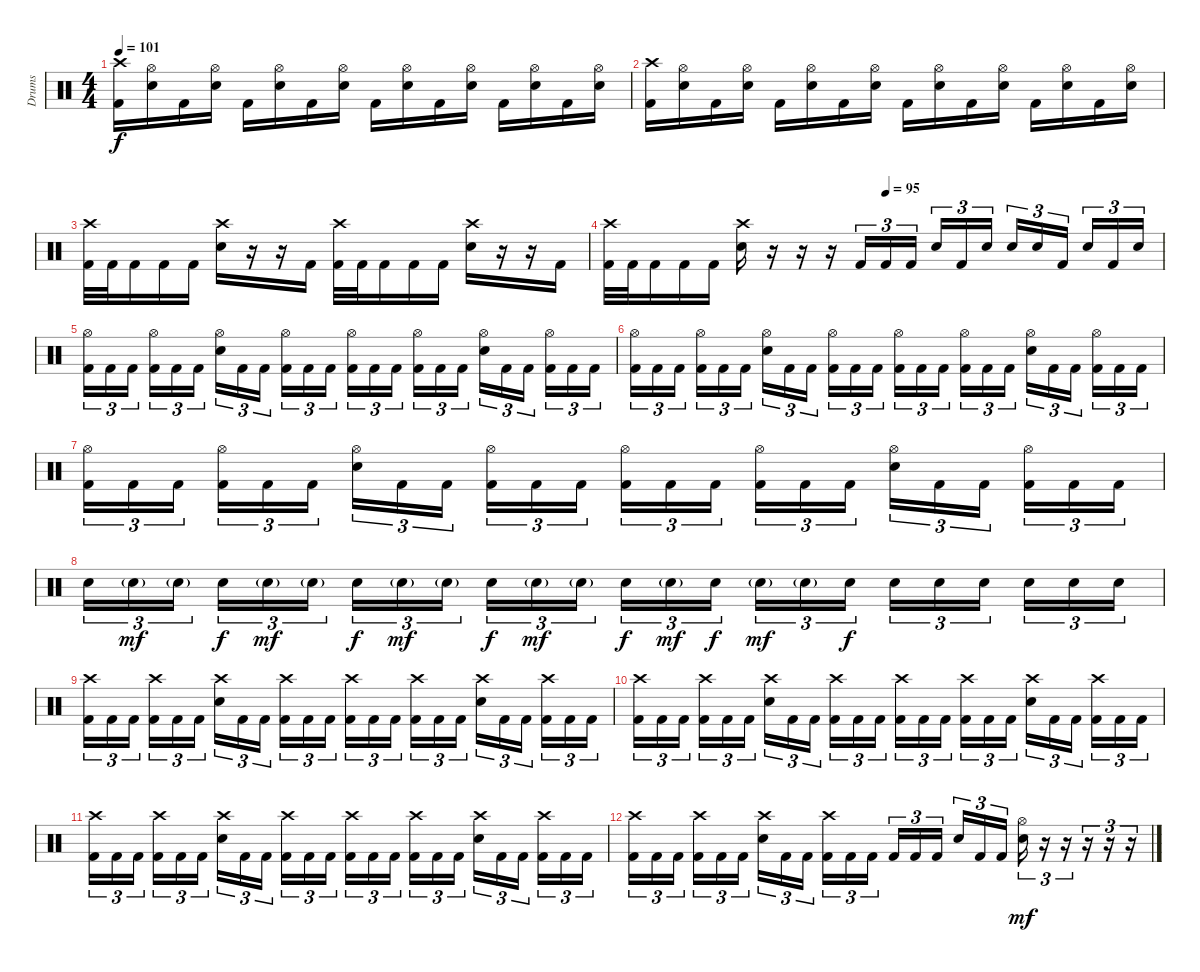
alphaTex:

\track ("Drums" "Drums") {instrument percussion}
\staff {score}
\articulation defaults
\ts (4 4)
\tempo 101
\clef neutral
\ks c
("Crash high (hit)" "Kick (hit) 2").16{dy f} ("Hi-Hat (open)" "Electric Snare (hit)").16 "Kick (hit) 2".16 ("Hi-Hat (open)" "Electric Snare (hit)").16 "Kick (hit) 2".16 ("Hi-Hat (open)" "Electric Snare (hit)").16 "Kick (hit) 2".16 ("Hi-Hat (open)" "Electric Snare (hit)").16 "Kick (hit) 2".16 ("Hi-Hat (open)" "Electric Snare (hit)").16 "Kick (hit) 2".16 ("Hi-Hat (open)" "Electric Snare (hit)").16 "Kick (hit) 2".16 ("Hi-Hat (open)" "Electric Snare (hit)").16 "Kick (hit) 2".16 ("Hi-Hat (open)" "Electric Snare (hit)").16 |
("Crash high (hit)" "Kick (hit) 2").16 ("Hi-Hat (open)" "Electric Snare (hit)").16 "Kick (hit) 2".16 ("Hi-Hat (open)" "Electric Snare (hit)").16 "Kick (hit) 2".16 ("Hi-Hat (open)" "Electric Snare (hit)").16 "Kick (hit) 2".16 ("Hi-Hat (open)" "Electric Snare (hit)").16 "Kick (hit) 2".16 ("Hi-Hat (open)" "Electric Snare (hit)").16 "Kick (hit) 2".16 ("Hi-Hat (open)" "Electric Snare (hit)").16 "Kick (hit) 2".16 ("Hi-Hat (open)" "Electric Snare (hit)").16 "Kick (hit) 2".16 ("Hi-Hat (open)" "Electric Snare (hit)").16 |
("Crash high (hit)" "Kick (hit) 2").32 "Kick (hit) 2".32 "Kick (hit) 2".16 "Kick (hit) 2".16 "Kick (hit) 2".16 ("Crash high (hit)" "Electric Snare (hit)").16 r.16 r.16 "Kick (hit) 2".16 ("Crash high (hit)" "Kick (hit) 2").32 "Kick (hit) 2".32 "Kick (hit) 2".16 "Kick (hit) 2".16 "Kick (hit) 2".16 ("Crash high (hit)" "Electric Snare (hit)").16 r.16 r.16 "Kick (hit) 2".16 |
\tempo (95 0.5)
("Crash high (hit)" "Kick (hit) 2").32 "Kick (hit) 2".32 "Kick (hit) 2".16 "Kick (hit) 2".16 "Kick (hit) 2".16 ("Crash high (hit)" "Electric Snare (hit)").16 r.16 r.16 r.16 "Kick (hit) 2".16{tu (3 2)} "Kick (hit) 2".16{tu (3 2)} "Kick (hit) 2".16{tu (3 2) beam splitsecondary} "Electric Snare (hit)".16{tu (3 2)} "Kick (hit) 2".16{tu (3 2)} "Electric Snare (hit)".16{tu (3 2)} "Electric Snare (hit)".16{tu (3 2)} "Electric Snare (hit)".16{tu (3 2)} "Kick (hit) 2".16{tu (3 2) beam splitsecondary} "Electric Snare (hit)".16{tu (3 2)} "Kick (hit) 2".16{tu (3 2)} "Electric Snare (hit)".16{tu (3 2)} |
("Hi-Hat (open)" "Kick (hit) 2").16{tu (3 2)} "Kick (hit) 2".16{tu (3 2)} "Kick (hit) 2".16{tu (3 2) beam splitsecondary} ("Hi-Hat (open)" "Kick (hit) 2").16{tu (3 2)} "Kick (hit) 2".16{tu (3 2)} "Kick (hit) 2".16{tu (3 2)} ("Hi-Hat (open)" "Electric Snare (hit)").16{tu (3 2)} "Kick (hit) 2".16{tu (3 2)} "Kick (hit) 2".16{tu (3 2) beam splitsecondary} ("Hi-Hat (open)" "Kick (hit) 2").16{tu (3 2)} "Kick (hit) 2".16{tu (3 2)} "Kick (hit) 2".16{tu (3 2)} ("Hi-Hat (open)" "Kick (hit) 2").16{tu (3 2)} "Kick (hit) 2".16{tu (3 2)} "Kick (hit) 2".16{tu (3 2) beam splitsecondary} ("Hi-Hat (open)" "Kick (hit) 2").16{tu (3 2)} "Kick (hit) 2".16{tu (3 2)} "Kick (hit) 2".16{tu (3 2)} ("Hi-Hat (open)" "Electric Snare (hit)").16{tu (3 2)} "Kick (hit) 2".16{tu (3 2)} "Kick (hit) 2".16{tu (3 2) beam splitsecondary} ("Hi-Hat (open)" "Kick (hit) 2").16{tu (3 2)} "Kick (hit) 2".16{tu (3 2)} "Kick (hit) 2".16{tu (3 2)} |
("Hi-Hat (open)" "Kick (hit) 2").16{tu (3 2)} "Kick (hit) 2".16{tu (3 2)} "Kick (hit) 2".16{tu (3 2) beam splitsecondary} ("Hi-Hat (open)" "Kick (hit) 2").16{tu (3 2)} "Kick (hit) 2".16{tu (3 2)} "Kick (hit) 2".16{tu (3 2)} ("Hi-Hat (open)" "Electric Snare (hit)").16{tu (3 2)} "Kick (hit) 2".16{tu (3 2)} "Kick (hit) 2".16{tu (3 2) beam splitsecondary} ("Hi-Hat (open)" "Kick (hit) 2").16{tu (3 2)} "Kick (hit) 2".16{tu (3 2)} "Kick (hit) 2".16{tu (3 2)} ("Hi-Hat (open)" "Kick (hit) 2").16{tu (3 2)} "Kick (hit) 2".16{tu (3 2)} "Kick (hit) 2".16{tu (3 2) beam splitsecondary} ("Hi-Hat (open)" "Kick (hit) 2").16{tu (3 2)} "Kick (hit) 2".16{tu (3 2)} "Kick (hit) 2".16{tu (3 2)} ("Hi-Hat (open)" "Electric Snare (hit)").16{tu (3 2)} "Kick (hit) 2".16{tu (3 2)} "Kick (hit) 2".16{tu (3 2) beam splitsecondary} ("Hi-Hat (open)" "Kick (hit) 2").16{tu (3 2)} "Kick (hit) 2".16{tu (3 2)} "Kick (hit) 2".16{tu (3 2)} |
("Hi-Hat (open)" "Kick (hit) 2").16{tu (3 2)} "Kick (hit) 2".16{tu (3 2)} "Kick (hit) 2".16{tu (3 2) beam splitsecondary} ("Hi-Hat (open)" "Kick (hit) 2").16{tu (3 2)} "Kick (hit) 2".16{tu (3 2)} "Kick (hit) 2".16{tu (3 2)} ("Hi-Hat (open)" "Electric Snare (hit)").16{tu (3 2)} "Kick (hit) 2".16{tu (3 2)} "Kick (hit) 2".16{tu (3 2) beam splitsecondary} ("Hi-Hat (open)" "Kick (hit) 2").16{tu (3 2)} "Kick (hit) 2".16{tu (3 2)} "Kick (hit) 2".16{tu (3 2)} ("Hi-Hat (open)" "Kick (hit) 2").16{tu (3 2)} "Kick (hit) 2".16{tu (3 2)} "Kick (hit) 2".16{tu (3 2) beam splitsecondary} ("Hi-Hat (open)" "Kick (hit) 2").16{tu (3 2)} "Kick (hit) 2".16{tu (3 2)} "Kick (hit) 2".16{tu (3 2)} ("Hi-Hat (open)" "Electric Snare (hit)").16{tu (3 2)} "Kick (hit) 2".16{tu (3 2)} "Kick (hit) 2".16{tu (3 2) beam splitsecondary} ("Hi-Hat (open)" "Kick (hit) 2").16{tu (3 2)} "Kick (hit) 2".16{tu (3 2)} "Kick (hit) 2".16{tu (3 2)} |
"Electric Snare (hit)".16{tu (3 2)} "Electric Snare (hit)"{g}.16{tu (3 2) dy mf} "Electric Snare (hit)"{g}.16{tu (3 2) beam splitsecondary} "Electric Snare (hit)".16{tu (3 2) dy f} "Electric Snare (hit)"{g}.16{tu (3 2) dy mf} "Electric Snare (hit)"{g}.16{tu (3 2)} "Electric Snare (hit)".16{tu (3 2) dy f} "Electric Snare (hit)"{g}.16{tu (3 2) dy mf} "Electric Snare (hit)"{g}.16{tu (3 2) beam splitsecondary} "Electric Snare (hit)".16{tu (3 2) dy f} "Electric Snare (hit)"{g}.16{tu (3 2) dy mf} "Electric Snare (hit)"{g}.16{tu (3 2)} "Electric Snare (hit)".16{tu (3 2) dy f} "Electric Snare (hit)"{g}.16{tu (3 2) dy mf} "Electric Snare (hit)".16{tu (3 2) dy f beam splitsecondary} "Electric Snare (hit)"{g}.16{tu (3 2) dy mf} "Electric Snare (hit)"{g}.16{tu (3 2)} "Electric Snare (hit)".16{tu (3 2) dy f} "Electric Snare (hit)".16{tu (3 2)} "Electric Snare (hit)".16{tu (3 2)} "Electric Snare (hit)".16{tu (3 2) beam splitsecondary} "Electric Snare (hit)".16{tu (3 2)} "Electric Snare (hit)".16{tu (3 2)} "Electric Snare (hit)".16{tu (3 2)} |
("Crash high (hit)" "Kick (hit) 2").16{tu (3 2)} "Kick (hit) 2".16{tu (3 2)} "Kick (hit) 2".16{tu (3 2) beam splitsecondary} ("Crash high (hit)" "Kick (hit) 2").16{tu (3 2)} "Kick (hit) 2".16{tu (3 2)} "Kick (hit) 2".16{tu (3 2)} ("Crash high (hit)" "Electric Snare (hit)").16{tu (3 2)} "Kick (hit) 2".16{tu (3 2)} "Kick (hit) 2".16{tu (3 2) beam splitsecondary} ("Crash high (hit)" "Kick (hit) 2").16{tu (3 2)} "Kick (hit) 2".16{tu (3 2)} "Kick (hit) 2".16{tu (3 2)} ("Crash high (hit)" "Kick (hit) 2").16{tu (3 2)} "Kick (hit) 2".16{tu (3 2)} "Kick (hit) 2".16{tu (3 2) beam splitsecondary} ("Crash high (hit)" "Kick (hit) 2").16{tu (3 2)} "Kick (hit) 2".16{tu (3 2)} "Kick (hit) 2".16{tu (3 2)} ("Crash high (hit)" "Electric Snare (hit)").16{tu (3 2)} "Kick (hit) 2".16{tu (3 2)} "Kick (hit) 2".16{tu (3 2) beam splitsecondary} ("Crash high (hit)" "Kick (hit) 2").16{tu (3 2)} "Kick (hit) 2".16{tu (3 2)} "Kick (hit) 2".16{tu (3 2)} |
("Crash high (hit)" "Kick (hit) 2").16{tu (3 2)} "Kick (hit) 2".16{tu (3 2)} "Kick (hit) 2".16{tu (3 2) beam splitsecondary} ("Crash high (hit)" "Kick (hit) 2").16{tu (3 2)} "Kick (hit) 2".16{tu (3 2)} "Kick (hit) 2".16{tu (3 2)} ("Crash high (hit)" "Electric Snare (hit)").16{tu (3 2)} "Kick (hit) 2".16{tu (3 2)} "Kick (hit) 2".16{tu (3 2) beam splitsecondary} ("Crash high (hit)" "Kick (hit) 2").16{tu (3 2)} "Kick (hit) 2".16{tu (3 2)} "Kick (hit) 2".16{tu (3 2)} ("Crash high (hit)" "Kick (hit) 2").16{tu (3 2)} "Kick (hit) 2".16{tu (3 2)} "Kick (hit) 2".16{tu (3 2) beam splitsecondary} ("Crash high (hit)" "Kick (hit) 2").16{tu (3 2)} "Kick (hit) 2".16{tu (3 2)} "Kick (hit) 2".16{tu (3 2)} ("Crash high (hit)" "Electric Snare (hit)").16{tu (3 2)} "Kick (hit) 2".16{tu (3 2)} "Kick (hit) 2".16{tu (3 2) beam splitsecondary} ("Crash high (hit)" "Kick (hit) 2").16{tu (3 2)} "Kick (hit) 2".16{tu (3 2)} "Kick (hit) 2".16{tu (3 2)} |
("Crash high (hit)" "Kick (hit) 2").16{tu (3 2)} "Kick (hit) 2".16{tu (3 2)} "Kick (hit) 2".16{tu (3 2) beam splitsecondary} ("Crash high (hit)" "Kick (hit) 2").16{tu (3 2)} "Kick (hit) 2".16{tu (3 2)} "Kick (hit) 2".16{tu (3 2)} ("Crash high (hit)" "Electric Snare (hit)").16{tu (3 2)} "Kick (hit) 2".16{tu (3 2)} "Kick (hit) 2".16{tu (3 2) beam splitsecondary} ("Crash high (hit)" "Kick (hit) 2").16{tu (3 2)} "Kick (hit) 2".16{tu (3 2)} "Kick (hit) 2".16{tu (3 2)} ("Crash high (hit)" "Kick (hit) 2").16{tu (3 2)} "Kick (hit) 2".16{tu (3 2)} "Kick (hit) 2".16{tu (3 2) beam splitsecondary} ("Crash high (hit)" "Kick (hit) 2").16{tu (3 2)} "Kick (hit) 2".16{tu (3 2)} "Kick (hit) 2".16{tu (3 2)} ("Crash high (hit)" "Electric Snare (hit)").16{tu (3 2)} "Kick (hit) 2".16{tu (3 2)} "Kick (hit) 2".16{tu (3 2) beam splitsecondary} ("Crash high (hit)" "Kick (hit) 2").16{tu (3 2)} "Kick (hit) 2".16{tu (3 2)} "Kick (hit) 2".16{tu (3 2)} |
("Crash high (hit)" "Kick (hit) 2").16{tu (3 2)} "Kick (hit) 2".16{tu (3 2)} "Kick (hit) 2".16{tu (3 2) beam splitsecondary} ("Crash high (hit)" "Kick (hit) 2").16{tu (3 2)} "Kick (hit) 2".16{tu (3 2)} "Kick (hit) 2".16{tu (3 2)} ("Crash high (hit)" "Electric Snare (hit)").16{tu (3 2)} "Kick (hit) 2".16{tu (3 2)} "Kick (hit) 2".16{tu (3 2) beam splitsecondary} ("Crash high (hit)" "Kick (hit) 2").16{tu (3 2)} "Kick (hit) 2".16{tu (3 2)} "Kick (hit) 2".16{tu (3 2)} "Kick (hit) 2".16{tu (3 2)} "Kick (hit) 2".16{tu (3 2)} "Kick (hit) 2".16{tu (3 2) beam splitsecondary} "Electric Snare (hit)".16{tu (3 2)} "Kick (hit) 2".16{tu (3 2)} "Kick (hit) 2".16{tu (3 2)} ("Hi-Hat (open)" "Electric Snare (hit)").16{tu (3 2) dy mf} r.16{tu (3 2)} r.16{tu (3 2)} r.16{tu (3 2)} r.16{tu (3 2)} r.16{tu (3 2)}
